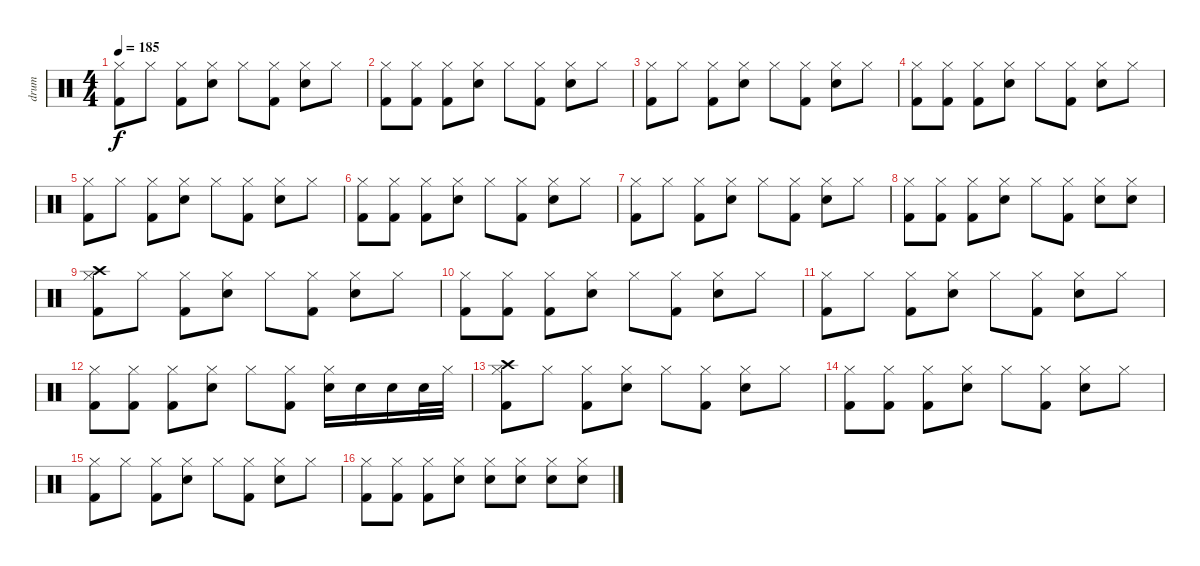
\track ("drum" "drum") {instrument percussion}
\staff {score}
\articulation defaults
\ts (4 4)
\tempo 185
\clef neutral
\ks c
("Hi-Hat (closed)" "Kick (hit) 2").8{dy f} "Hi-Hat (closed)".8 ("Hi-Hat (closed)" "Kick (hit) 2").8 ("Hi-Hat (closed)" "Electric Snare (hit)").8 "Hi-Hat (closed)".8 ("Hi-Hat (closed)" "Kick (hit) 2").8 ("Hi-Hat (closed)" "Electric Snare (hit)").8 "Hi-Hat (closed)".8 |
("Hi-Hat (closed)" "Kick (hit) 2").8 ("Hi-Hat (closed)" "Kick (hit) 2").8 ("Hi-Hat (closed)" "Kick (hit) 2").8 ("Hi-Hat (closed)" "Electric Snare (hit)").8 "Hi-Hat (closed)".8 ("Hi-Hat (closed)" "Kick (hit) 2").8 ("Hi-Hat (closed)" "Electric Snare (hit)").8 "Hi-Hat (closed)".8 |
("Hi-Hat (closed)" "Kick (hit) 2").8 "Hi-Hat (closed)".8 ("Hi-Hat (closed)" "Kick (hit) 2").8 ("Hi-Hat (closed)" "Electric Snare (hit)").8 "Hi-Hat (closed)".8 ("Hi-Hat (closed)" "Kick (hit) 2").8 ("Hi-Hat (closed)" "Electric Snare (hit)").8 "Hi-Hat (closed)".8 |
("Hi-Hat (closed)" "Kick (hit) 2").8 ("Hi-Hat (closed)" "Kick (hit) 2").8 ("Hi-Hat (closed)" "Kick (hit) 2").8 ("Hi-Hat (closed)" "Electric Snare (hit)").8 "Hi-Hat (closed)".8 ("Hi-Hat (closed)" "Kick (hit) 2").8 ("Hi-Hat (closed)" "Electric Snare (hit)").8 "Hi-Hat (closed)".8 |
("Hi-Hat (closed)" "Kick (hit) 2").8 "Hi-Hat (closed)".8 ("Hi-Hat (closed)" "Kick (hit) 2").8 ("Hi-Hat (closed)" "Electric Snare (hit)").8 "Hi-Hat (closed)".8 ("Hi-Hat (closed)" "Kick (hit) 2").8 ("Hi-Hat (closed)" "Electric Snare (hit)").8 "Hi-Hat (closed)".8 |
("Hi-Hat (closed)" "Kick (hit) 2").8 ("Hi-Hat (closed)" "Kick (hit) 2").8 ("Hi-Hat (closed)" "Kick (hit) 2").8 ("Hi-Hat (closed)" "Electric Snare (hit)").8 "Hi-Hat (closed)".8 ("Hi-Hat (closed)" "Kick (hit) 2").8 ("Hi-Hat (closed)" "Electric Snare (hit)").8 "Hi-Hat (closed)".8 |
("Hi-Hat (closed)" "Kick (hit) 2").8 "Hi-Hat (closed)".8 ("Hi-Hat (closed)" "Kick (hit) 2").8 ("Hi-Hat (closed)" "Electric Snare (hit)").8 "Hi-Hat (closed)".8 ("Hi-Hat (closed)" "Kick (hit) 2").8 ("Hi-Hat (closed)" "Electric Snare (hit)").8 "Hi-Hat (closed)".8 |
("Hi-Hat (closed)" "Kick (hit) 2").8 ("Hi-Hat (closed)" "Kick (hit) 2").8 ("Hi-Hat (closed)" "Kick (hit) 2").8 ("Hi-Hat (closed)" "Electric Snare (hit)").8 "Hi-Hat (closed)".8 ("Hi-Hat (closed)" "Kick (hit) 2").8 ("Hi-Hat (closed)" "Electric Snare (hit)").8 ("Hi-Hat (closed)" "Electric Snare (hit)").8 |
("Hi-Hat (closed)" "Crash high (hit)" "Kick (hit) 2").8 "Hi-Hat (closed)".8 ("Hi-Hat (closed)" "Kick (hit) 2").8 ("Hi-Hat (closed)" "Electric Snare (hit)").8 "Hi-Hat (closed)".8 ("Hi-Hat (closed)" "Kick (hit) 2").8 ("Hi-Hat (closed)" "Electric Snare (hit)").8 "Hi-Hat (closed)".8 |
("Hi-Hat (closed)" "Kick (hit) 2").8 ("Hi-Hat (closed)" "Kick (hit) 2").8 ("Hi-Hat (closed)" "Kick (hit) 2").8 ("Hi-Hat (closed)" "Electric Snare (hit)").8 "Hi-Hat (closed)".8 ("Hi-Hat (closed)" "Kick (hit) 2").8 ("Hi-Hat (closed)" "Electric Snare (hit)").8 "Hi-Hat (closed)".8 |
("Hi-Hat (closed)" "Kick (hit) 2").8 "Hi-Hat (closed)".8 ("Hi-Hat (closed)" "Kick (hit) 2").8 ("Hi-Hat (closed)" "Electric Snare (hit)").8 "Hi-Hat (closed)".8 ("Hi-Hat (closed)" "Kick (hit) 2").8 ("Hi-Hat (closed)" "Electric Snare (hit)").8 "Hi-Hat (closed)".8 |
("Hi-Hat (closed)" "Kick (hit) 2").8 ("Hi-Hat (closed)" "Kick (hit) 2").8 ("Hi-Hat (closed)" "Kick (hit) 2").8 ("Hi-Hat (closed)" "Electric Snare (hit)").8 "Hi-Hat (closed)".8 ("Hi-Hat (closed)" "Kick (hit) 2").8 ("Hi-Hat (closed)" "Electric Snare (hit)").16 "Electric Snare (hit)".16 "Electric Snare (hit)".16 "Electric Snare (hit)".32 "Hi-Hat (closed)".32 |
("Hi-Hat (closed)" "Crash high (hit)" "Kick (hit) 2").8 "Hi-Hat (closed)".8 ("Hi-Hat (closed)" "Kick (hit) 2").8 ("Hi-Hat (closed)" "Electric Snare (hit)").8 "Hi-Hat (closed)".8 ("Hi-Hat (closed)" "Kick (hit) 2").8 ("Hi-Hat (closed)" "Electric Snare (hit)").8 "Hi-Hat (closed)".8 |
("Hi-Hat (closed)" "Kick (hit) 2").8 ("Hi-Hat (closed)" "Kick (hit) 2").8 ("Hi-Hat (closed)" "Kick (hit) 2").8 ("Hi-Hat (closed)" "Electric Snare (hit)").8 "Hi-Hat (closed)".8 ("Hi-Hat (closed)" "Kick (hit) 2").8 ("Hi-Hat (closed)" "Electric Snare (hit)").8 "Hi-Hat (closed)".8 |
("Hi-Hat (closed)" "Kick (hit) 2").8 "Hi-Hat (closed)".8 ("Hi-Hat (closed)" "Kick (hit) 2").8 ("Hi-Hat (closed)" "Electric Snare (hit)").8 "Hi-Hat (closed)".8 ("Hi-Hat (closed)" "Kick (hit) 2").8 ("Hi-Hat (closed)" "Electric Snare (hit)").8 "Hi-Hat (closed)".8 |
("Hi-Hat (closed)" "Kick (hit) 2").8 ("Hi-Hat (closed)" "Kick (hit) 2").8 ("Hi-Hat (closed)" "Kick (hit) 2").8 ("Hi-Hat (closed)" "Electric Snare (hit)").8 ("Hi-Hat (closed)" "Electric Snare (hit)").8 ("Hi-Hat (closed)" "Electric Snare (hit)").8 ("Hi-Hat (closed)" "Electric Snare (hit)").8 ("Hi-Hat (closed)" "Electric Snare (hit)").8
